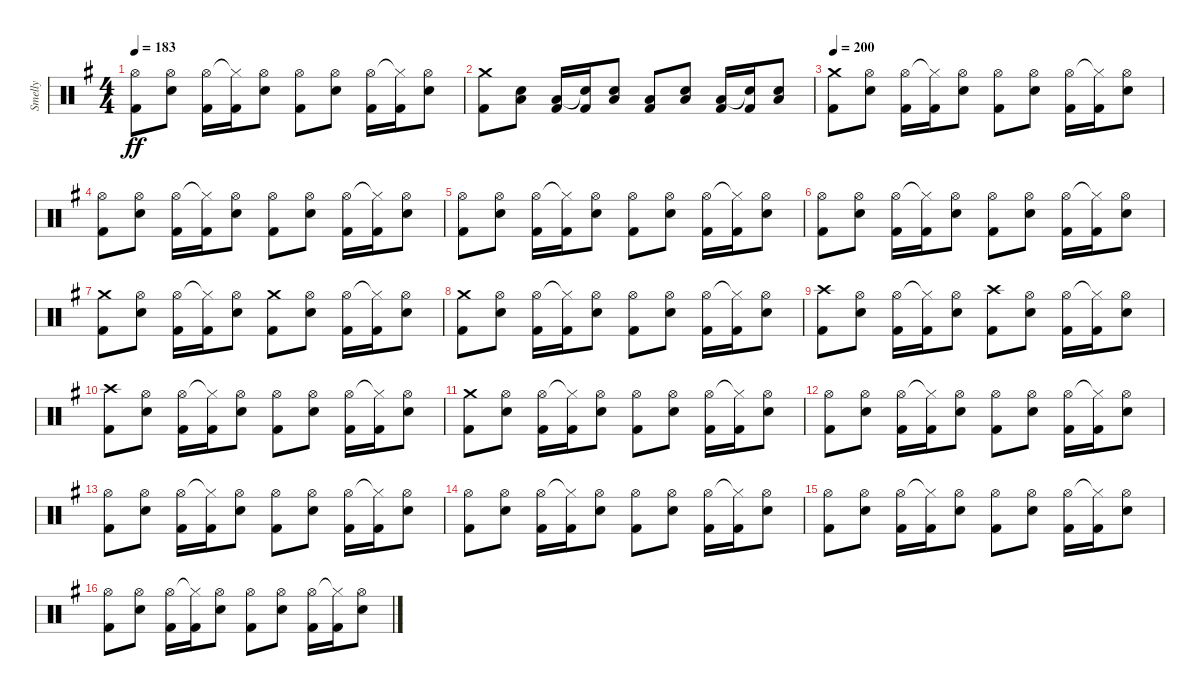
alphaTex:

\track ("Smelly" "Smelly") {instrument percussion}
\staff {score}
\articulation defaults
\ts (4 4)
\tempo 183
\clef neutral
\ks eminor
("Hi-Hat (open)" "Kick (hit) 2").8{dy ff} ("Hi-Hat (open)" "Electric Snare (hit)").8 ("Hi-Hat (open)" "Kick (hit) 2").16 ("Hi-Hat (closed)"{t} "Kick (hit) 2").16 ("Hi-Hat (open)" "Electric Snare (hit)").8 ("Hi-Hat (open)" "Kick (hit) 2").8 ("Hi-Hat (open)" "Electric Snare (hit)").8 ("Hi-Hat (open)" "Kick (hit) 2").16 ("Hi-Hat (closed)"{t} "Kick (hit) 2").16 ("Hi-Hat (open)" "Electric Snare (hit)").8 |
("Crash medium (hit)" "Kick (hit) 2").8 ("Low Floor Tom (hit)" "Electric Snare (hit)").8 ("Low Floor Tom (hit)" "Kick (hit) 2").16 ("Snare (hit)"{t} "Kick (hit) 2").16 ("Low Floor Tom (hit)" "Electric Snare (hit)").8 ("Low Floor Tom (hit)" "Kick (hit) 2").8 ("Low Floor Tom (hit)" "Electric Snare (hit)").8 ("Low Floor Tom (hit)" "Kick (hit) 2").16 ("Snare (hit)"{t} "Kick (hit) 2").16 ("Low Floor Tom (hit)" "Electric Snare (hit)").8 |
\tempo 200
("Crash medium (hit)" "Kick (hit) 2").8 ("Hi-Hat (open)" "Electric Snare (hit)").8 ("Hi-Hat (open)" "Kick (hit) 2").16 ("Hi-Hat (closed)"{t} "Kick (hit) 2").16 ("Hi-Hat (open)" "Electric Snare (hit)").8 ("Hi-Hat (open)" "Kick (hit) 2").8 ("Hi-Hat (open)" "Electric Snare (hit)").8 ("Hi-Hat (open)" "Kick (hit) 2").16 ("Hi-Hat (closed)"{t} "Kick (hit) 2").16 ("Hi-Hat (open)" "Electric Snare (hit)").8 |
("Hi-Hat (open)" "Kick (hit) 2").8 ("Hi-Hat (open)" "Electric Snare (hit)").8 ("Hi-Hat (open)" "Kick (hit) 2").16 ("Hi-Hat (closed)"{t} "Kick (hit) 2").16 ("Hi-Hat (open)" "Electric Snare (hit)").8 ("Hi-Hat (open)" "Kick (hit) 2").8 ("Hi-Hat (open)" "Electric Snare (hit)").8 ("Hi-Hat (open)" "Kick (hit) 2").16 ("Hi-Hat (closed)"{t} "Kick (hit) 2").16 ("Hi-Hat (open)" "Electric Snare (hit)").8 |
("Hi-Hat (open)" "Kick (hit) 2").8 ("Hi-Hat (open)" "Electric Snare (hit)").8 ("Hi-Hat (open)" "Kick (hit) 2").16 ("Hi-Hat (closed)"{t} "Kick (hit) 2").16 ("Hi-Hat (open)" "Electric Snare (hit)").8 ("Hi-Hat (open)" "Kick (hit) 2").8 ("Hi-Hat (open)" "Electric Snare (hit)").8 ("Hi-Hat (open)" "Kick (hit) 2").16 ("Hi-Hat (closed)"{t} "Kick (hit) 2").16 ("Hi-Hat (open)" "Electric Snare (hit)").8 |
("Hi-Hat (open)" "Kick (hit) 2").8 ("Hi-Hat (open)" "Electric Snare (hit)").8 ("Hi-Hat (open)" "Kick (hit) 2").16 ("Hi-Hat (closed)"{t} "Kick (hit) 2").16 ("Hi-Hat (open)" "Electric Snare (hit)").8 ("Hi-Hat (open)" "Kick (hit) 2").8 ("Hi-Hat (open)" "Electric Snare (hit)").8 ("Hi-Hat (open)" "Kick (hit) 2").16 ("Hi-Hat (closed)"{t} "Kick (hit) 2").16 ("Hi-Hat (open)" "Electric Snare (hit)").8 |
("Crash medium (hit)" "Kick (hit) 2").8 ("Hi-Hat (open)" "Electric Snare (hit)").8 ("Hi-Hat (open)" "Kick (hit) 2").16 ("Hi-Hat (closed)"{t} "Kick (hit) 2").16 ("Hi-Hat (open)" "Electric Snare (hit)").8 ("Crash medium (hit)" "Kick (hit) 2").8 ("Hi-Hat (open)" "Electric Snare (hit)").8 ("Hi-Hat (open)" "Kick (hit) 2").16 ("Hi-Hat (closed)"{t} "Kick (hit) 2").16 ("Hi-Hat (open)" "Electric Snare (hit)").8 |
("Crash medium (hit)" "Kick (hit) 2").8 ("Hi-Hat (open)" "Electric Snare (hit)").8 ("Hi-Hat (open)" "Kick (hit) 2").16 ("Hi-Hat (closed)"{t} "Kick (hit) 2").16 ("Hi-Hat (open)" "Electric Snare (hit)").8 ("Hi-Hat (open)" "Kick (hit) 2").8 ("Hi-Hat (open)" "Electric Snare (hit)").8 ("Hi-Hat (open)" "Kick (hit) 2").16 ("Hi-Hat (closed)"{t} "Kick (hit) 2").16 ("Hi-Hat (open)" "Electric Snare (hit)").8 |
("Crash high (hit)" "Kick (hit) 2").8 ("Hi-Hat (open)" "Electric Snare (hit)").8 ("Hi-Hat (open)" "Kick (hit) 2").16 ("Hi-Hat (closed)"{t} "Kick (hit) 2").16 ("Hi-Hat (open)" "Electric Snare (hit)").8 ("Crash high (hit)" "Kick (hit) 2").8 ("Hi-Hat (open)" "Electric Snare (hit)").8 ("Hi-Hat (open)" "Kick (hit) 2").16 ("Hi-Hat (closed)"{t} "Kick (hit) 2").16 ("Hi-Hat (open)" "Electric Snare (hit)").8 |
("Crash high (hit)" "Kick (hit) 2").8 ("Hi-Hat (open)" "Electric Snare (hit)").8 ("Hi-Hat (open)" "Kick (hit) 2").16 ("Hi-Hat (closed)"{t} "Kick (hit) 2").16 ("Hi-Hat (open)" "Electric Snare (hit)").8 ("Hi-Hat (open)" "Kick (hit) 2").8 ("Hi-Hat (open)" "Electric Snare (hit)").8 ("Hi-Hat (open)" "Kick (hit) 2").16 ("Hi-Hat (closed)"{t} "Kick (hit) 2").16 ("Hi-Hat (open)" "Electric Snare (hit)").8 |
("Crash medium (hit)" "Kick (hit) 2").8 ("Hi-Hat (open)" "Electric Snare (hit)").8 ("Hi-Hat (open)" "Kick (hit) 2").16 ("Hi-Hat (closed)"{t} "Kick (hit) 2").16 ("Hi-Hat (open)" "Electric Snare (hit)").8 ("Hi-Hat (open)" "Kick (hit) 2").8 ("Hi-Hat (open)" "Electric Snare (hit)").8 ("Hi-Hat (open)" "Kick (hit) 2").16 ("Hi-Hat (closed)"{t} "Kick (hit) 2").16 ("Hi-Hat (open)" "Electric Snare (hit)").8 |
("Hi-Hat (open)" "Kick (hit) 2").8 ("Hi-Hat (open)" "Electric Snare (hit)").8 ("Hi-Hat (open)" "Kick (hit) 2").16 ("Hi-Hat (closed)"{t} "Kick (hit) 2").16 ("Hi-Hat (open)" "Electric Snare (hit)").8 ("Hi-Hat (open)" "Kick (hit) 2").8 ("Hi-Hat (open)" "Electric Snare (hit)").8 ("Hi-Hat (open)" "Kick (hit) 2").16 ("Hi-Hat (closed)"{t} "Kick (hit) 2").16 ("Hi-Hat (open)" "Electric Snare (hit)").8 |
("Hi-Hat (open)" "Kick (hit) 2").8 ("Hi-Hat (open)" "Electric Snare (hit)").8 ("Hi-Hat (open)" "Kick (hit) 2").16 ("Hi-Hat (closed)"{t} "Kick (hit) 2").16 ("Hi-Hat (open)" "Electric Snare (hit)").8 ("Hi-Hat (open)" "Kick (hit) 2").8 ("Hi-Hat (open)" "Electric Snare (hit)").8 ("Hi-Hat (open)" "Kick (hit) 2").16 ("Hi-Hat (closed)"{t} "Kick (hit) 2").16 ("Hi-Hat (open)" "Electric Snare (hit)").8 |
("Hi-Hat (open)" "Kick (hit) 2").8 ("Hi-Hat (open)" "Electric Snare (hit)").8 ("Hi-Hat (open)" "Kick (hit) 2").16 ("Hi-Hat (closed)"{t} "Kick (hit) 2").16 ("Hi-Hat (open)" "Electric Snare (hit)").8 ("Hi-Hat (open)" "Kick (hit) 2").8 ("Hi-Hat (open)" "Electric Snare (hit)").8 ("Hi-Hat (open)" "Kick (hit) 2").16 ("Hi-Hat (closed)"{t} "Kick (hit) 2").16 ("Hi-Hat (open)" "Electric Snare (hit)").8 |
("Hi-Hat (open)" "Kick (hit) 2").8 ("Hi-Hat (open)" "Electric Snare (hit)").8 ("Hi-Hat (open)" "Kick (hit) 2").16 ("Hi-Hat (closed)"{t} "Kick (hit) 2").16 ("Hi-Hat (open)" "Electric Snare (hit)").8 ("Hi-Hat (open)" "Kick (hit) 2").8 ("Hi-Hat (open)" "Electric Snare (hit)").8 ("Hi-Hat (open)" "Kick (hit) 2").16 ("Hi-Hat (closed)"{t} "Kick (hit) 2").16 ("Hi-Hat (open)" "Electric Snare (hit)").8 |
("Hi-Hat (open)" "Kick (hit) 2").8 ("Hi-Hat (open)" "Electric Snare (hit)").8 ("Hi-Hat (open)" "Kick (hit) 2").16 ("Hi-Hat (closed)"{t} "Kick (hit) 2").16 ("Hi-Hat (open)" "Electric Snare (hit)").8 ("Hi-Hat (open)" "Kick (hit) 2").8 ("Hi-Hat (open)" "Electric Snare (hit)").8 ("Hi-Hat (open)" "Kick (hit) 2").16 ("Hi-Hat (closed)"{t} "Kick (hit) 2").16 ("Hi-Hat (open)" "Electric Snare (hit)").8
